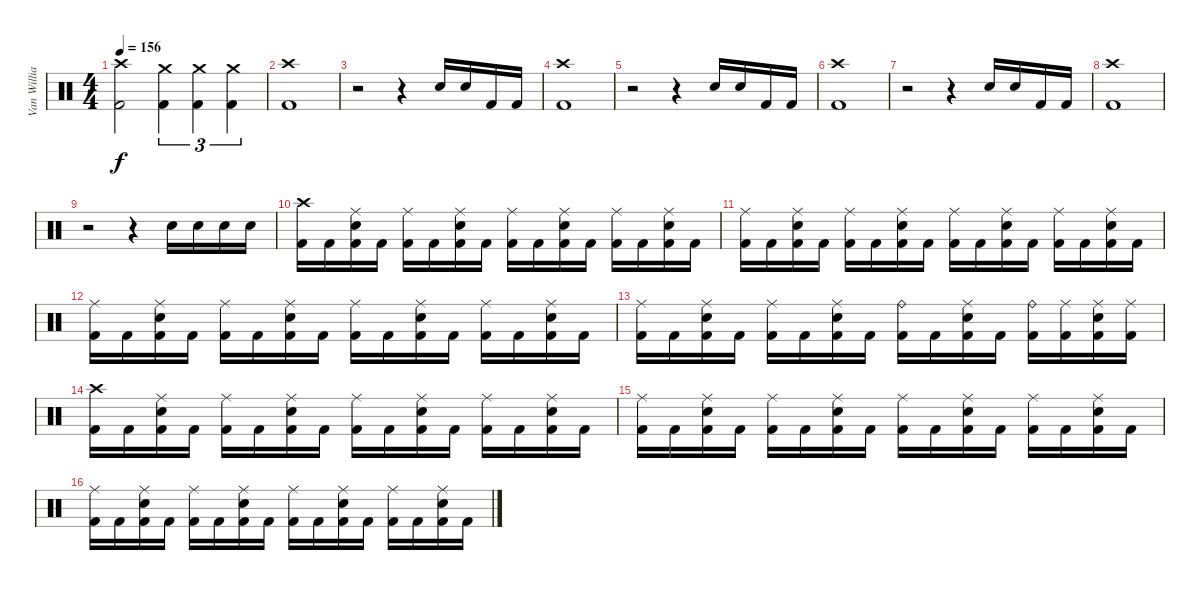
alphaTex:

\track ("Van Williams" "Van Willia") {instrument percussion}
\staff {score}
\articulation defaults
\ts (4 4)
\tempo 156
\clef neutral
\ks c
("Crash high (hit)" "Kick (hit) 2").2{dy f} ("Crash medium (hit)" "Kick (hit) 2").4{tu (3 2)} ("Crash medium (hit)" "Kick (hit) 2").4{tu (3 2)} ("Crash medium (hit)" "Kick (hit) 2").4{tu (3 2)} |
("Crash high (hit)" "Kick (hit) 2").1 |
r.2 r.4 "Electric Snare (hit)".16 "Electric Snare (hit)".16 "Kick (hit) 2".16 "Kick (hit) 2".16 |
("Crash high (hit)" "Kick (hit) 2").1 |
r.2 r.4 "Electric Snare (hit)".16 "Electric Snare (hit)".16 "Kick (hit) 2".16 "Kick (hit) 2".16 |
("Crash high (hit)" "Kick (hit) 2").1 |
r.2 r.4 "Electric Snare (hit)".16 "Electric Snare (hit)".16 "Kick (hit) 2".16 "Kick (hit) 2".16 |
("Crash high (hit)" "Kick (hit) 2").1 |
r.2 r.4 "Electric Snare (hit)".16 "Electric Snare (hit)".16 "Electric Snare (hit)".16 "Electric Snare (hit)".16 |
\section ("" "")
("Crash high (hit)" "Kick (hit) 2").16 "Kick (hit) 2".16 ("Ride (middle)" "Electric Snare (hit)" "Kick (hit) 2").16 "Kick (hit) 2".16 ("Ride (middle)" "Kick (hit) 2").16 "Kick (hit) 2".16 ("Ride (middle)" "Electric Snare (hit)" "Kick (hit) 2").16 "Kick (hit) 2".16 ("Ride (middle)" "Kick (hit) 2").16 "Kick (hit) 2".16 ("Ride (middle)" "Electric Snare (hit)" "Kick (hit) 2").16 "Kick (hit) 2".16 ("Ride (middle)" "Kick (hit) 2").16 "Kick (hit) 2".16 ("Ride (middle)" "Electric Snare (hit)" "Kick (hit) 2").16 "Kick (hit) 2".16 |
("Ride (middle)" "Kick (hit) 2").16 "Kick (hit) 2".16 ("Ride (middle)" "Electric Snare (hit)" "Kick (hit) 2").16 "Kick (hit) 2".16 ("Ride (middle)" "Kick (hit) 2").16 "Kick (hit) 2".16 ("Ride (middle)" "Electric Snare (hit)" "Kick (hit) 2").16 "Kick (hit) 2".16 ("Ride (middle)" "Kick (hit) 2").16 "Kick (hit) 2".16 ("Ride (middle)" "Electric Snare (hit)" "Kick (hit) 2").16 "Kick (hit) 2".16 ("Ride (middle)" "Kick (hit) 2").16 "Kick (hit) 2".16 ("Ride (middle)" "Electric Snare (hit)" "Kick (hit) 2").16 "Kick (hit) 2".16 |
("Ride (middle)" "Kick (hit) 2").16 "Kick (hit) 2".16 ("Ride (middle)" "Electric Snare (hit)" "Kick (hit) 2").16 "Kick (hit) 2".16 ("Ride (middle)" "Kick (hit) 2").16 "Kick (hit) 2".16 ("Ride (middle)" "Electric Snare (hit)" "Kick (hit) 2").16 "Kick (hit) 2".16 ("Ride (middle)" "Kick (hit) 2").16 "Kick (hit) 2".16 ("Ride (middle)" "Electric Snare (hit)" "Kick (hit) 2").16 "Kick (hit) 2".16 ("Ride (middle)" "Kick (hit) 2").16 "Kick (hit) 2".16 ("Ride (middle)" "Electric Snare (hit)" "Kick (hit) 2").16 "Kick (hit) 2".16 |
("Ride (middle)" "Kick (hit) 2").16 "Kick (hit) 2".16 ("Ride (middle)" "Electric Snare (hit)" "Kick (hit) 2").16 "Kick (hit) 2".16 ("Ride (middle)" "Kick (hit) 2").16 "Kick (hit) 2".16 ("Ride (middle)" "Electric Snare (hit)" "Kick (hit) 2").16 "Kick (hit) 2".16 ("Ride (bell)" "Kick (hit) 2").16 "Kick (hit) 2".16 ("Ride (middle)" "Electric Snare (hit)" "Kick (hit) 2").16 "Kick (hit) 2".16 ("Ride (bell)" "Kick (hit) 2").16 ("Ride (middle)" "Kick (hit) 2").16 ("Ride (middle)" "Electric Snare (hit)" "Kick (hit) 2").16 ("Ride (middle)" "Kick (hit) 2").16 |
("Crash high (hit)" "Kick (hit) 2").16 "Kick (hit) 2".16 ("Ride (middle)" "Electric Snare (hit)" "Kick (hit) 2").16 "Kick (hit) 2".16 ("Ride (middle)" "Kick (hit) 2").16 "Kick (hit) 2".16 ("Ride (middle)" "Electric Snare (hit)" "Kick (hit) 2").16 "Kick (hit) 2".16 ("Ride (middle)" "Kick (hit) 2").16 "Kick (hit) 2".16 ("Ride (middle)" "Electric Snare (hit)" "Kick (hit) 2").16 "Kick (hit) 2".16 ("Ride (middle)" "Kick (hit) 2").16 "Kick (hit) 2".16 ("Ride (middle)" "Electric Snare (hit)" "Kick (hit) 2").16 "Kick (hit) 2".16 |
("Ride (middle)" "Kick (hit) 2").16 "Kick (hit) 2".16 ("Ride (middle)" "Electric Snare (hit)" "Kick (hit) 2").16 "Kick (hit) 2".16 ("Ride (middle)" "Kick (hit) 2").16 "Kick (hit) 2".16 ("Ride (middle)" "Electric Snare (hit)" "Kick (hit) 2").16 "Kick (hit) 2".16 ("Ride (middle)" "Kick (hit) 2").16 "Kick (hit) 2".16 ("Ride (middle)" "Electric Snare (hit)" "Kick (hit) 2").16 "Kick (hit) 2".16 ("Ride (middle)" "Kick (hit) 2").16 "Kick (hit) 2".16 ("Ride (middle)" "Electric Snare (hit)" "Kick (hit) 2").16 "Kick (hit) 2".16 |
("Ride (middle)" "Kick (hit) 2").16 "Kick (hit) 2".16 ("Ride (middle)" "Electric Snare (hit)" "Kick (hit) 2").16 "Kick (hit) 2".16 ("Ride (middle)" "Kick (hit) 2").16 "Kick (hit) 2".16 ("Ride (middle)" "Electric Snare (hit)" "Kick (hit) 2").16 "Kick (hit) 2".16 ("Ride (middle)" "Kick (hit) 2").16 "Kick (hit) 2".16 ("Ride (middle)" "Electric Snare (hit)" "Kick (hit) 2").16 "Kick (hit) 2".16 ("Ride (middle)" "Kick (hit) 2").16 "Kick (hit) 2".16 ("Ride (middle)" "Electric Snare (hit)" "Kick (hit) 2").16 "Kick (hit) 2".16
